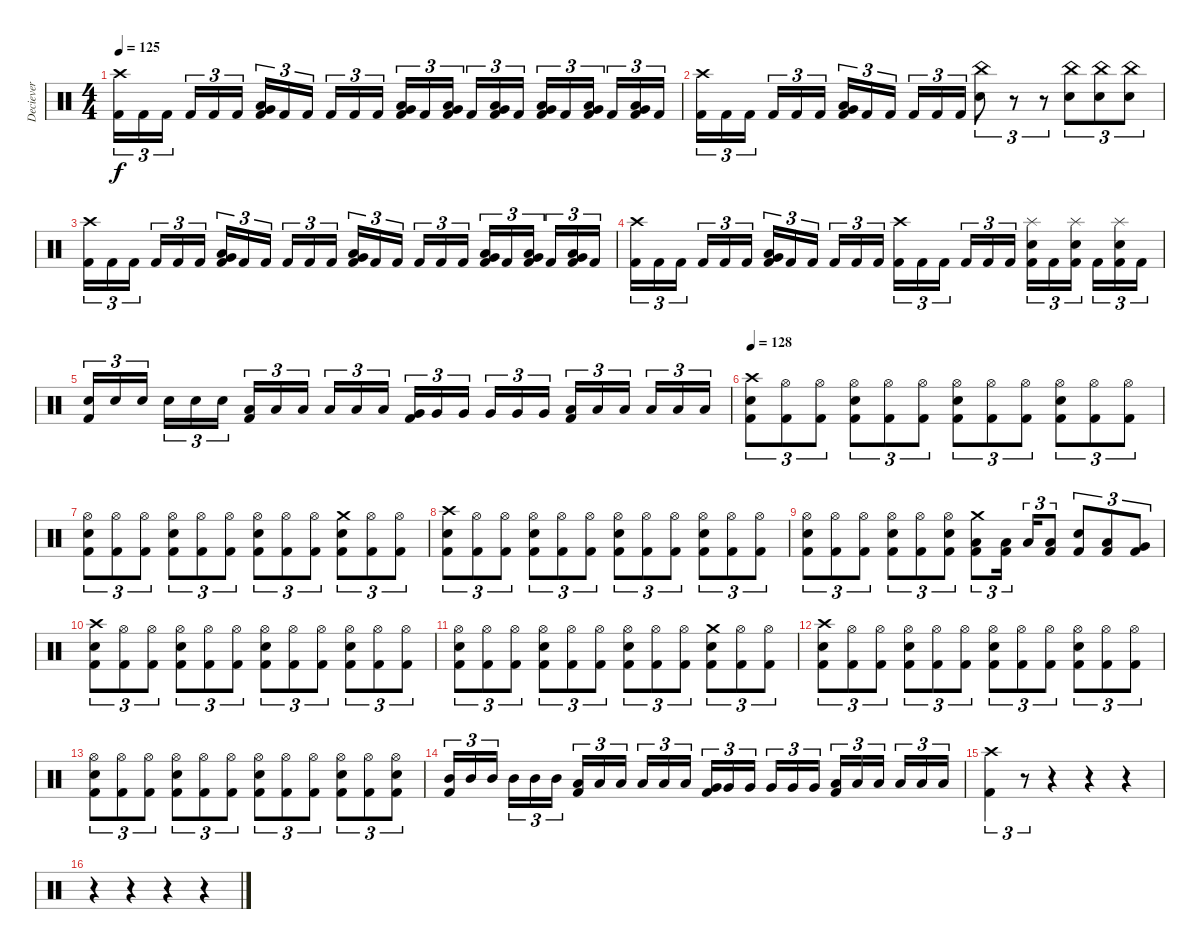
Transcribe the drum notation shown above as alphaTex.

\track ("Deciever" "Deciever") {instrument percussion}
\staff {score}
\articulation defaults
\ts (4 4)
\tempo 125
\clef neutral
\ks c
("Crash high (hit)" "Kick (hit) 2").16{tu (3 2) dy f} "Kick (hit) 2".16{tu (3 2)} "Kick (hit) 2".16{tu (3 2) beam splitsecondary} "Kick (hit) 2".16{tu (3 2)} "Kick (hit) 2".16{tu (3 2)} "Kick (hit) 2".16{tu (3 2)} ("Low Tom (hit)" "Very Low Tom (hit)" "Kick (hit) 2").16{tu (3 2)} "Kick (hit) 2".16{tu (3 2)} "Kick (hit) 2".16{tu (3 2) beam splitsecondary} "Kick (hit) 2".16{tu (3 2)} "Kick (hit) 2".16{tu (3 2)} "Kick (hit) 2".16{tu (3 2)} ("Low Tom (hit)" "Very Low Tom (hit)" "Kick (hit) 2").16{tu (3 2)} "Kick (hit) 2".16{tu (3 2)} ("Low Tom (hit)" "Very Low Tom (hit)" "Kick (hit) 2").16{tu (3 2) beam splitsecondary} "Kick (hit) 2".16{tu (3 2)} ("Low Tom (hit)" "Very Low Tom (hit)" "Kick (hit) 2").16{tu (3 2)} "Kick (hit) 2".16{tu (3 2)} ("Low Tom (hit)" "Very Low Tom (hit)" "Kick (hit) 2").16{tu (3 2)} "Kick (hit) 2".16{tu (3 2)} ("Low Tom (hit)" "Very Low Tom (hit)" "Kick (hit) 2").16{tu (3 2) beam splitsecondary} "Kick (hit) 2".16{tu (3 2)} ("Low Tom (hit)" "Very Low Tom (hit)" "Kick (hit) 2").16{tu (3 2)} "Kick (hit) 2".16{tu (3 2)} |
("Crash high (hit)" "Kick (hit) 2").16{tu (3 2)} "Kick (hit) 2".16{tu (3 2)} "Kick (hit) 2".16{tu (3 2) beam splitsecondary} "Kick (hit) 2".16{tu (3 2)} "Kick (hit) 2".16{tu (3 2)} "Kick (hit) 2".16{tu (3 2)} ("Low Tom (hit)" "Very Low Tom (hit)" "Kick (hit) 2").16{tu (3 2)} "Kick (hit) 2".16{tu (3 2)} "Kick (hit) 2".16{tu (3 2) beam splitsecondary} "Kick (hit) 2".16{tu (3 2)} "Kick (hit) 2".16{tu (3 2)} "Kick (hit) 2".16{tu (3 2)} ("China (hit)" "Electric Snare (hit)").8{tu (3 2)} r.8{tu (3 2)} r.8{tu (3 2)} ("China (hit)" "Electric Snare (hit)").8{tu (3 2)} ("China (hit)" "Electric Snare (hit)").8{tu (3 2)} ("China (hit)" "Electric Snare (hit)").8{tu (3 2)} |
("Crash high (hit)" "Kick (hit) 2").16{tu (3 2)} "Kick (hit) 2".16{tu (3 2)} "Kick (hit) 2".16{tu (3 2) beam splitsecondary} "Kick (hit) 2".16{tu (3 2)} "Kick (hit) 2".16{tu (3 2)} "Kick (hit) 2".16{tu (3 2)} ("Low Tom (hit)" "Very Low Tom (hit)" "Kick (hit) 2").16{tu (3 2)} "Kick (hit) 2".16{tu (3 2)} "Kick (hit) 2".16{tu (3 2) beam splitsecondary} "Kick (hit) 2".16{tu (3 2)} "Kick (hit) 2".16{tu (3 2)} "Kick (hit) 2".16{tu (3 2)} ("Low Tom (hit)" "Very Low Tom (hit)" "Kick (hit) 2").16{tu (3 2)} "Kick (hit) 2".16{tu (3 2)} "Kick (hit) 2".16{tu (3 2) beam splitsecondary} "Kick (hit) 2".16{tu (3 2)} "Kick (hit) 2".16{tu (3 2)} "Kick (hit) 2".16{tu (3 2)} ("Low Tom (hit)" "Very Low Tom (hit)" "Kick (hit) 2").16{tu (3 2)} "Kick (hit) 2".16{tu (3 2)} ("Low Tom (hit)" "Very Low Tom (hit)" "Kick (hit) 2").16{tu (3 2) beam splitsecondary} "Kick (hit) 2".16{tu (3 2)} ("Low Tom (hit)" "Very Low Tom (hit)" "Kick (hit) 2").16{tu (3 2)} "Kick (hit) 2".16{tu (3 2)} |
("Crash high (hit)" "Kick (hit) 2").16{tu (3 2)} "Kick (hit) 2".16{tu (3 2)} "Kick (hit) 2".16{tu (3 2) beam splitsecondary} "Kick (hit) 2".16{tu (3 2)} "Kick (hit) 2".16{tu (3 2)} "Kick (hit) 2".16{tu (3 2)} ("Low Tom (hit)" "Very Low Tom (hit)" "Kick (hit) 2").16{tu (3 2)} "Kick (hit) 2".16{tu (3 2)} "Kick (hit) 2".16{tu (3 2) beam splitsecondary} "Kick (hit) 2".16{tu (3 2)} "Kick (hit) 2".16{tu (3 2)} "Kick (hit) 2".16{tu (3 2)} ("Crash high (hit)" "Kick (hit) 2").16{tu (3 2)} "Kick (hit) 2".16{tu (3 2)} "Kick (hit) 2".16{tu (3 2) beam splitsecondary} "Kick (hit) 2".16{tu (3 2)} "Kick (hit) 2".16{tu (3 2)} "Kick (hit) 2".16{tu (3 2)} ("Splash (hit)" "Electric Snare (hit)" "Kick (hit) 2").16{tu (3 2)} "Kick (hit) 2".16{tu (3 2)} ("Splash (hit)" "Electric Snare (hit)" "Kick (hit) 2").16{tu (3 2) beam splitsecondary} "Kick (hit) 2".16{tu (3 2)} ("Splash (hit)" "Electric Snare (hit)" "Kick (hit) 2").16{tu (3 2)} "Kick (hit) 2".16{tu (3 2)} |
("Electric Snare (hit)" "Kick (hit) 2").16{tu (3 2)} "Electric Snare (hit)".16{tu (3 2)} "Electric Snare (hit)".16{tu (3 2) beam splitsecondary} "Electric Snare (hit)".16{tu (3 2)} "Electric Snare (hit)".16{tu (3 2)} "Electric Snare (hit)".16{tu (3 2)} ("Low Tom (hit)" "Kick (hit) 2").16{tu (3 2)} "Low Tom (hit)".16{tu (3 2)} "Low Tom (hit)".16{tu (3 2) beam splitsecondary} "Low Tom (hit)".16{tu (3 2)} "Low Tom (hit)".16{tu (3 2)} "Low Tom (hit)".16{tu (3 2)} ("Very Low Tom (hit)" "Kick (hit) 2").16{tu (3 2)} "Very Low Tom (hit)".16{tu (3 2)} "Very Low Tom (hit)".16{tu (3 2) beam splitsecondary} "Very Low Tom (hit)".16{tu (3 2)} "Very Low Tom (hit)".16{tu (3 2)} "Very Low Tom (hit)".16{tu (3 2)} ("Low Floor Tom (hit)" "Kick (hit) 2").16{tu (3 2)} "Low Floor Tom (hit)".16{tu (3 2)} "Low Floor Tom (hit)".16{tu (3 2) beam splitsecondary} "Low Floor Tom (hit)".16{tu (3 2)} "Low Floor Tom (hit)".16{tu (3 2)} "Low Floor Tom (hit)".16{tu (3 2)} |
\tempo 128
("Crash high (hit)" "Electric Snare (hit)" "Kick (hit) 2").8{tu (3 2)} ("Hi-Hat (open)" "Kick (hit) 2").8{tu (3 2)} ("Hi-Hat (open)" "Kick (hit) 2").8{tu (3 2)} ("Hi-Hat (open)" "Electric Snare (hit)" "Kick (hit) 2").8{tu (3 2)} ("Hi-Hat (open)" "Kick (hit) 2").8{tu (3 2)} ("Hi-Hat (open)" "Kick (hit) 2").8{tu (3 2)} ("Hi-Hat (open)" "Electric Snare (hit)" "Kick (hit) 2").8{tu (3 2)} ("Hi-Hat (open)" "Kick (hit) 2").8{tu (3 2)} ("Hi-Hat (open)" "Kick (hit) 2").8{tu (3 2)} ("Hi-Hat (open)" "Electric Snare (hit)" "Kick (hit) 2").8{tu (3 2)} ("Hi-Hat (open)" "Kick (hit) 2").8{tu (3 2)} ("Hi-Hat (open)" "Kick (hit) 2").8{tu (3 2)} |
("Hi-Hat (open)" "Electric Snare (hit)" "Kick (hit) 2").8{tu (3 2)} ("Hi-Hat (open)" "Kick (hit) 2").8{tu (3 2)} ("Hi-Hat (open)" "Kick (hit) 2").8{tu (3 2)} ("Hi-Hat (open)" "Electric Snare (hit)" "Kick (hit) 2").8{tu (3 2)} ("Hi-Hat (open)" "Kick (hit) 2").8{tu (3 2)} ("Hi-Hat (open)" "Kick (hit) 2").8{tu (3 2)} ("Hi-Hat (open)" "Electric Snare (hit)" "Kick (hit) 2").8{tu (3 2)} ("Hi-Hat (open)" "Kick (hit) 2").8{tu (3 2)} ("Hi-Hat (open)" "Kick (hit) 2").8{tu (3 2)} ("Crash medium (hit)" "Electric Snare (hit)" "Kick (hit) 2").8{tu (3 2)} ("Hi-Hat (open)" "Kick (hit) 2").8{tu (3 2)} ("Hi-Hat (open)" "Kick (hit) 2").8{tu (3 2)} |
("Crash high (hit)" "Electric Snare (hit)" "Kick (hit) 2").8{tu (3 2)} ("Hi-Hat (open)" "Kick (hit) 2").8{tu (3 2)} ("Hi-Hat (open)" "Kick (hit) 2").8{tu (3 2)} ("Hi-Hat (open)" "Electric Snare (hit)" "Kick (hit) 2").8{tu (3 2)} ("Hi-Hat (open)" "Kick (hit) 2").8{tu (3 2)} ("Hi-Hat (open)" "Kick (hit) 2").8{tu (3 2)} ("Hi-Hat (open)" "Electric Snare (hit)" "Kick (hit) 2").8{tu (3 2)} ("Hi-Hat (open)" "Kick (hit) 2").8{tu (3 2)} ("Hi-Hat (open)" "Kick (hit) 2").8{tu (3 2)} ("Hi-Hat (open)" "Electric Snare (hit)" "Kick (hit) 2").8{tu (3 2)} ("Hi-Hat (open)" "Kick (hit) 2").8{tu (3 2)} ("Hi-Hat (open)" "Kick (hit) 2").8{tu (3 2)} |
("Hi-Hat (open)" "Electric Snare (hit)" "Kick (hit) 2").8{tu (3 2)} ("Hi-Hat (open)" "Kick (hit) 2").8{tu (3 2)} ("Hi-Hat (open)" "Kick (hit) 2").8{tu (3 2)} ("Hi-Hat (open)" "Electric Snare (hit)" "Kick (hit) 2").8{tu (3 2)} ("Hi-Hat (open)" "Kick (hit) 2").8{tu (3 2)} ("Hi-Hat (open)" "Electric Snare (hit)" "Kick (hit) 2").8{tu (3 2)} ("Crash medium (hit)" "Low Tom (hit)" "Kick (hit) 2").8{tu (3 2)} ("Low Tom (hit)" "Kick (hit) 2").16{tu (3 2) beam splitsecondary} "Low Tom (hit)".16{tu (3 2)} ("Low Tom (hit)" "Kick (hit) 2").8{tu (3 2)} ("Electric Snare (hit)" "Kick (hit) 2").8{tu (3 2)} ("Low Tom (hit)" "Kick (hit) 2").8{tu (3 2)} ("Very Low Tom (hit)" "Kick (hit) 2").8{tu (3 2)} |
("Crash high (hit)" "Electric Snare (hit)" "Kick (hit) 2").8{tu (3 2)} ("Hi-Hat (open)" "Kick (hit) 2").8{tu (3 2)} ("Hi-Hat (open)" "Kick (hit) 2").8{tu (3 2)} ("Hi-Hat (open)" "Electric Snare (hit)" "Kick (hit) 2").8{tu (3 2)} ("Hi-Hat (open)" "Kick (hit) 2").8{tu (3 2)} ("Hi-Hat (open)" "Kick (hit) 2").8{tu (3 2)} ("Hi-Hat (open)" "Electric Snare (hit)" "Kick (hit) 2").8{tu (3 2)} ("Hi-Hat (open)" "Kick (hit) 2").8{tu (3 2)} ("Hi-Hat (open)" "Kick (hit) 2").8{tu (3 2)} ("Hi-Hat (open)" "Electric Snare (hit)" "Kick (hit) 2").8{tu (3 2)} ("Hi-Hat (open)" "Kick (hit) 2").8{tu (3 2)} ("Hi-Hat (open)" "Kick (hit) 2").8{tu (3 2)} |
("Hi-Hat (open)" "Electric Snare (hit)" "Kick (hit) 2").8{tu (3 2)} ("Hi-Hat (open)" "Kick (hit) 2").8{tu (3 2)} ("Hi-Hat (open)" "Kick (hit) 2").8{tu (3 2)} ("Hi-Hat (open)" "Electric Snare (hit)" "Kick (hit) 2").8{tu (3 2)} ("Hi-Hat (open)" "Kick (hit) 2").8{tu (3 2)} ("Hi-Hat (open)" "Kick (hit) 2").8{tu (3 2)} ("Hi-Hat (open)" "Electric Snare (hit)" "Kick (hit) 2").8{tu (3 2)} ("Hi-Hat (open)" "Kick (hit) 2").8{tu (3 2)} ("Hi-Hat (open)" "Kick (hit) 2").8{tu (3 2)} ("Crash medium (hit)" "Electric Snare (hit)" "Kick (hit) 2").8{tu (3 2)} ("Hi-Hat (open)" "Kick (hit) 2").8{tu (3 2)} ("Hi-Hat (open)" "Kick (hit) 2").8{tu (3 2)} |
("Crash high (hit)" "Electric Snare (hit)" "Kick (hit) 2").8{tu (3 2)} ("Hi-Hat (open)" "Kick (hit) 2").8{tu (3 2)} ("Hi-Hat (open)" "Kick (hit) 2").8{tu (3 2)} ("Hi-Hat (open)" "Electric Snare (hit)" "Kick (hit) 2").8{tu (3 2)} ("Hi-Hat (open)" "Kick (hit) 2").8{tu (3 2)} ("Hi-Hat (open)" "Kick (hit) 2").8{tu (3 2)} ("Hi-Hat (open)" "Electric Snare (hit)" "Kick (hit) 2").8{tu (3 2)} ("Hi-Hat (open)" "Kick (hit) 2").8{tu (3 2)} ("Hi-Hat (open)" "Kick (hit) 2").8{tu (3 2)} ("Hi-Hat (open)" "Electric Snare (hit)" "Kick (hit) 2").8{tu (3 2)} ("Hi-Hat (open)" "Kick (hit) 2").8{tu (3 2)} ("Hi-Hat (open)" "Kick (hit) 2").8{tu (3 2)} |
("Hi-Hat (open)" "Electric Snare (hit)" "Kick (hit) 2").8{tu (3 2)} ("Hi-Hat (open)" "Kick (hit) 2").8{tu (3 2)} ("Hi-Hat (open)" "Kick (hit) 2").8{tu (3 2)} ("Hi-Hat (open)" "Electric Snare (hit)" "Kick (hit) 2").8{tu (3 2)} ("Hi-Hat (open)" "Kick (hit) 2").8{tu (3 2)} ("Hi-Hat (open)" "Kick (hit) 2").8{tu (3 2)} ("Hi-Hat (open)" "Electric Snare (hit)" "Kick (hit) 2").8{tu (3 2)} ("Hi-Hat (open)" "Kick (hit) 2").8{tu (3 2)} ("Hi-Hat (open)" "Kick (hit) 2").8{tu (3 2)} ("Hi-Hat (open)" "Electric Snare (hit)" "Kick (hit) 2").8{tu (3 2)} ("Hi-Hat (open)" "Kick (hit) 2").8{tu (3 2)} ("Hi-Hat (open)" "Electric Snare (hit)" "Kick (hit) 2").8{tu (3 2)} |
("Mid Tom (hit)" "Kick (hit) 2").16{tu (3 2)} "Mid Tom (hit)".16{tu (3 2)} "Mid Tom (hit)".16{tu (3 2) beam splitsecondary} "Mid Tom (hit)".16{tu (3 2)} "Mid Tom (hit)".16{tu (3 2)} "Mid Tom (hit)".16{tu (3 2)} ("Low Tom (hit)" "Kick (hit) 2").16{tu (3 2)} "Low Tom (hit)".16{tu (3 2)} "Low Tom (hit)".16{tu (3 2) beam splitsecondary} "Low Tom (hit)".16{tu (3 2)} "Low Tom (hit)".16{tu (3 2)} "Low Tom (hit)".16{tu (3 2)} ("Very Low Tom (hit)" "Kick (hit) 2").16{tu (3 2)} "Very Low Tom (hit)".16{tu (3 2)} "Very Low Tom (hit)".16{tu (3 2) beam splitsecondary} "Very Low Tom (hit)".16{tu (3 2)} "Very Low Tom (hit)".16{tu (3 2)} "Very Low Tom (hit)".16{tu (3 2)} ("Low Floor Tom (hit)" "Kick (hit) 2").16{tu (3 2)} "Low Floor Tom (hit)".16{tu (3 2)} "Low Floor Tom (hit)".16{tu (3 2) beam splitsecondary} "Low Floor Tom (hit)".16{tu (3 2)} "Low Floor Tom (hit)".16{tu (3 2)} "Low Floor Tom (hit)".16{tu (3 2)} |
("Crash high (hit)" "Kick (hit) 2").4{tu (3 2)} r.8{tu (3 2)} r.4 r.4 r.4 |
r.4 r.4 r.4 r.4
